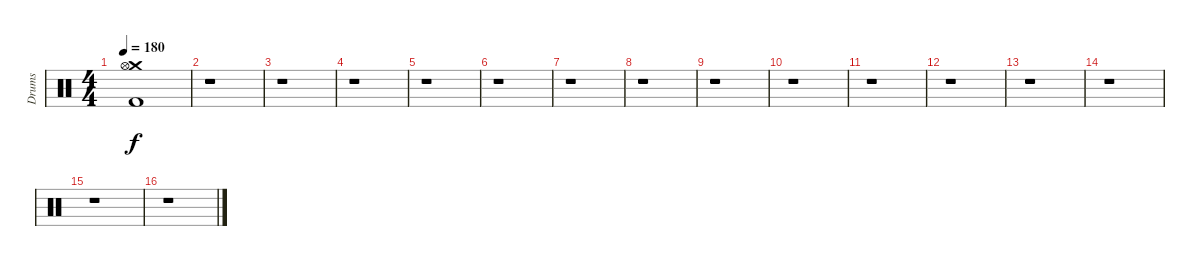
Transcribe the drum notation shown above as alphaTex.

\track ("Drums" "Drums") {instrument percussion}
\staff {score}
\articulation defaults
\ts (4 4)
\tempo 180
\clef neutral
\ks c
("Crash medium (hit)" "Hi-Hat (open)" "Kick (hit) 2").1{dy f} |
r.1 |
r.1 |
r.1 |
r.1 |
r.1 |
r.1 |
r.1 |
r.1 |
r.1 |
r.1 |
r.1 |
r.1 |
r.1 |
r.1 |
r.1
